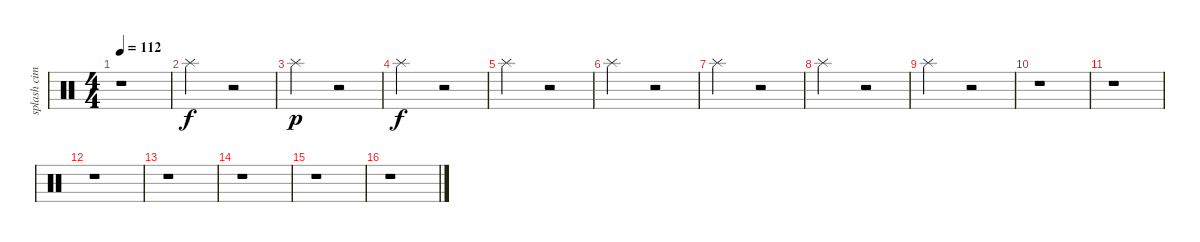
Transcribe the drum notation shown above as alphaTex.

\track ("splash cimbal" "splash cim") {instrument percussion}
\staff {score}
\articulation defaults
\ts (4 4)
\tempo 112
\clef neutral
\ks c
r.1{dy f} |
"Splash (hit)".2 r.2 |
"Splash (hit)".2{dy p} r.2 |
"Splash (hit)".2{dy f} r.2 |
"Splash (hit)".2 r.2 |
"Splash (hit)".2 r.2 |
"Splash (hit)".2 r.2 |
"Splash (hit)".2 r.2 |
"Splash (hit)".2 r.2 |
r.1 |
r.1 |
r.1 |
r.1 |
r.1 |
r.1 |
r.1
